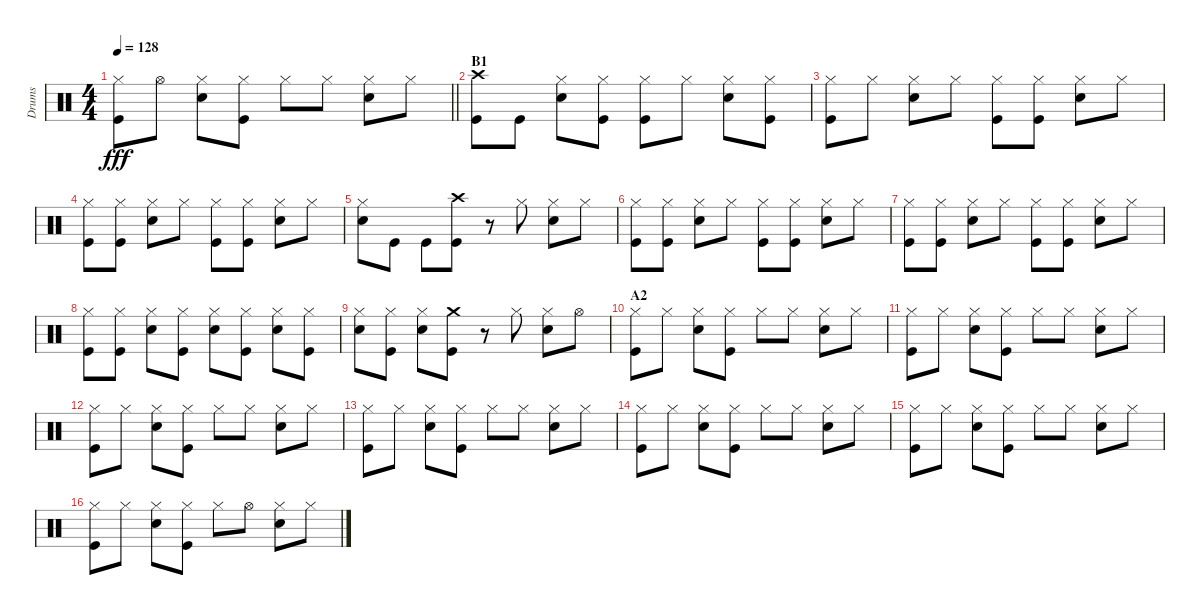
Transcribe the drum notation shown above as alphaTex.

\track ("Drums" "Drums") {instrument percussion}
\staff {score}
\articulation defaults
\ts (4 4)
\tempo 128
\clef neutral
\barLineRight lightlight
\ks c
("Hi-Hat (closed)" "Kick (hit)").8{dy fff} "Hi-Hat (open)".8 ("Hi-Hat (closed)" "Snare (hit) 2").8 ("Hi-Hat (closed)" "Kick (hit)").8 "Hi-Hat (closed)".8 "Hi-Hat (closed)".8 ("Hi-Hat (closed)" "Snare (hit) 2").8 "Hi-Hat (closed)".8 |
\section ("" "B1")
("Crash high (hit)" "Kick (hit)").8 "Kick (hit)".8 ("Hi-Hat (closed)" "Snare (hit) 2").8 ("Hi-Hat (closed)" "Kick (hit)").8 ("Hi-Hat (closed)" "Kick (hit)").8 "Hi-Hat (closed)".8 ("Hi-Hat (closed)" "Snare (hit) 2").8 ("Hi-Hat (closed)" "Kick (hit)").8 |
("Hi-Hat (closed)" "Kick (hit)").8 "Hi-Hat (closed)".8 ("Hi-Hat (closed)" "Snare (hit) 2").8 "Hi-Hat (closed)".8 ("Hi-Hat (closed)" "Kick (hit)").8 ("Hi-Hat (closed)" "Kick (hit)").8 ("Hi-Hat (closed)" "Snare (hit) 2").8 "Hi-Hat (closed)".8 |
("Hi-Hat (closed)" "Kick (hit)").8 ("Hi-Hat (closed)" "Kick (hit)").8 ("Hi-Hat (closed)" "Snare (hit) 2").8 "Hi-Hat (closed)".8 ("Hi-Hat (closed)" "Kick (hit)").8 ("Hi-Hat (closed)" "Kick (hit)").8 ("Hi-Hat (closed)" "Snare (hit) 2").8 "Hi-Hat (closed)".8 |
("Hi-Hat (closed)" "Snare (hit) 2").8 "Kick (hit)".8 "Kick (hit)".8 ("Crash high (hit)" "Kick (hit)").8 r.8 "Hi-Hat (closed)".8 ("Hi-Hat (closed)" "Snare (hit) 2").8 "Hi-Hat (closed)".8 |
("Hi-Hat (closed)" "Kick (hit)").8 ("Hi-Hat (closed)" "Kick (hit)").8 ("Hi-Hat (closed)" "Snare (hit) 2").8 "Hi-Hat (closed)".8 ("Hi-Hat (closed)" "Kick (hit)").8 ("Hi-Hat (closed)" "Kick (hit)").8 ("Hi-Hat (closed)" "Snare (hit) 2").8 "Hi-Hat (closed)".8 |
("Hi-Hat (closed)" "Kick (hit)").8 ("Hi-Hat (closed)" "Kick (hit)").8 ("Hi-Hat (closed)" "Snare (hit) 2").8 "Hi-Hat (closed)".8 ("Hi-Hat (closed)" "Kick (hit)").8 ("Hi-Hat (closed)" "Kick (hit)").8 ("Hi-Hat (closed)" "Snare (hit) 2").8 "Hi-Hat (closed)".8 |
("Hi-Hat (closed)" "Kick (hit)").8 ("Hi-Hat (closed)" "Kick (hit)").8 ("Hi-Hat (closed)" "Snare (hit) 2").8 ("Hi-Hat (closed)" "Kick (hit)").8 ("Hi-Hat (closed)" "Snare (hit) 2").8 ("Hi-Hat (closed)" "Kick (hit)").8 ("Hi-Hat (closed)" "Snare (hit) 2").8 ("Hi-Hat (closed)" "Kick (hit)").8 |
("Hi-Hat (closed)" "Snare (hit) 2").8 ("Hi-Hat (closed)" "Kick (hit)").8 ("Hi-Hat (closed)" "Snare (hit) 2").8 ("Crash medium (hit)" "Kick (hit)").8 r.8 "Hi-Hat (closed)".8 ("Hi-Hat (closed)" "Snare (hit) 2").8 "Hi-Hat (open)".8 |
\section ("" "A2")
("Hi-Hat (closed)" "Kick (hit)").8 "Hi-Hat (closed)".8 ("Hi-Hat (closed)" "Snare (hit) 2").8 ("Hi-Hat (closed)" "Kick (hit)").8 "Hi-Hat (closed)".8 "Hi-Hat (closed)".8 ("Hi-Hat (closed)" "Snare (hit) 2").8 "Hi-Hat (closed)".8 |
("Hi-Hat (closed)" "Kick (hit)").8 "Hi-Hat (closed)".8 ("Hi-Hat (closed)" "Snare (hit) 2").8 ("Hi-Hat (closed)" "Kick (hit)").8 "Hi-Hat (closed)".8 "Hi-Hat (closed)".8 ("Hi-Hat (closed)" "Snare (hit) 2").8 "Hi-Hat (closed)".8 |
("Hi-Hat (closed)" "Kick (hit)").8 "Hi-Hat (closed)".8 ("Hi-Hat (closed)" "Snare (hit) 2").8 ("Hi-Hat (closed)" "Kick (hit)").8 "Hi-Hat (closed)".8 "Hi-Hat (closed)".8 ("Hi-Hat (closed)" "Snare (hit) 2").8 "Hi-Hat (closed)".8 |
("Hi-Hat (closed)" "Kick (hit)").8 "Hi-Hat (closed)".8 ("Hi-Hat (closed)" "Snare (hit) 2").8 ("Hi-Hat (closed)" "Kick (hit)").8 "Hi-Hat (closed)".8 "Hi-Hat (closed)".8 ("Hi-Hat (closed)" "Snare (hit) 2").8 "Hi-Hat (closed)".8 |
("Hi-Hat (closed)" "Kick (hit)").8 "Hi-Hat (closed)".8 ("Hi-Hat (closed)" "Snare (hit) 2").8 ("Hi-Hat (closed)" "Kick (hit)").8 "Hi-Hat (closed)".8 "Hi-Hat (closed)".8 ("Hi-Hat (closed)" "Snare (hit) 2").8 "Hi-Hat (closed)".8 |
("Hi-Hat (closed)" "Kick (hit)").8 "Hi-Hat (closed)".8 ("Hi-Hat (closed)" "Snare (hit) 2").8 ("Hi-Hat (closed)" "Kick (hit)").8 "Hi-Hat (closed)".8 "Hi-Hat (closed)".8 ("Hi-Hat (closed)" "Snare (hit) 2").8 "Hi-Hat (closed)".8 |
("Hi-Hat (closed)" "Kick (hit)").8 "Hi-Hat (closed)".8 ("Hi-Hat (closed)" "Snare (hit) 2").8 ("Hi-Hat (closed)" "Kick (hit)").8 "Hi-Hat (closed)".8 "Hi-Hat (open)".8 ("Hi-Hat (closed)" "Snare (hit) 2").8 "Hi-Hat (closed)".8
